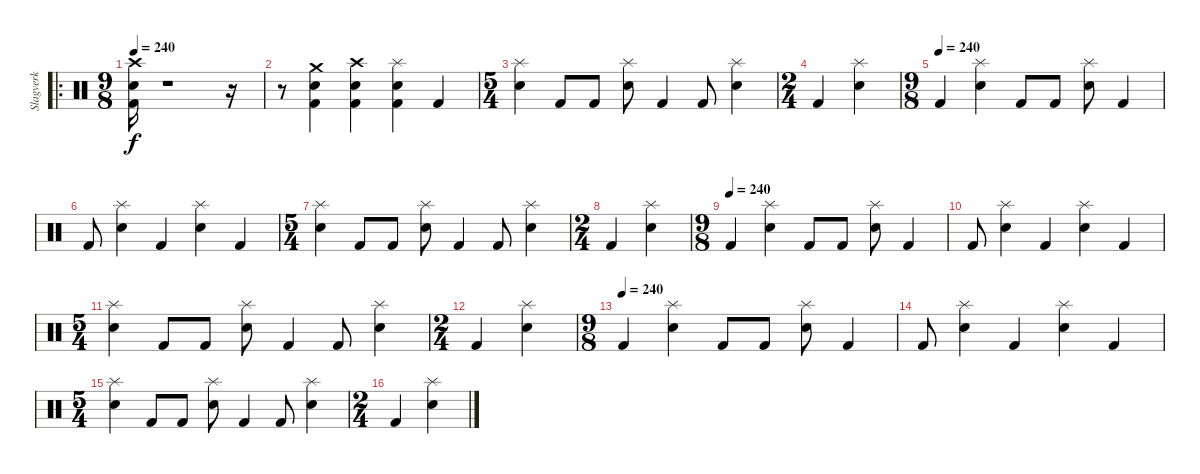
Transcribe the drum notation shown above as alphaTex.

\track ("Slagverk" "Slagverk") {instrument percussion}
\staff {score}
\articulation defaults
\ro
\ts (9 8)
\tempo 240
\clef neutral
\ks c
("Crash high (hit)" "Electric Snare (hit)" "Kick (hit) 2").16{dy f} r.1 r.16 |
r.8 ("Crash medium (hit)" "Electric Snare (hit)" "Kick (hit) 2").4 ("Crash high (hit)" "Electric Snare (hit)" "Kick (hit) 2").4 ("Splash (hit)" "Electric Snare (hit)" "Kick (hit) 2").4 "Kick (hit) 2".4 |
\ts (5 4)
("Splash (hit)" "Electric Snare (hit)").4 "Kick (hit) 2".8 "Kick (hit) 2".8 ("Splash (hit)" "Electric Snare (hit)").8 "Kick (hit) 2".4 "Kick (hit) 2".8 ("Splash (hit)" "Electric Snare (hit)").4 |
\ts (2 4)
"Kick (hit) 2".4 ("Splash (hit)" "Electric Snare (hit)").4 |
\ts (9 8)
\tempo (240)
"Kick (hit) 2".4 ("Splash (hit)" "Electric Snare (hit)").4 "Kick (hit) 2".8 "Kick (hit) 2".8 ("Splash (hit)" "Electric Snare (hit)").8 "Kick (hit) 2".4 |
"Kick (hit) 2".8 ("Splash (hit)" "Electric Snare (hit)").4 "Kick (hit) 2".4 ("Splash (hit)" "Electric Snare (hit)").4 "Kick (hit) 2".4 |
\ts (5 4)
("Splash (hit)" "Electric Snare (hit)").4 "Kick (hit) 2".8 "Kick (hit) 2".8 ("Splash (hit)" "Electric Snare (hit)").8 "Kick (hit) 2".4 "Kick (hit) 2".8 ("Splash (hit)" "Electric Snare (hit)").4 |
\ts (2 4)
"Kick (hit) 2".4 ("Splash (hit)" "Electric Snare (hit)").4 |
\ts (9 8)
\tempo (240)
"Kick (hit) 2".4 ("Splash (hit)" "Electric Snare (hit)").4 "Kick (hit) 2".8 "Kick (hit) 2".8 ("Splash (hit)" "Electric Snare (hit)").8 "Kick (hit) 2".4 |
"Kick (hit) 2".8 ("Splash (hit)" "Electric Snare (hit)").4 "Kick (hit) 2".4 ("Splash (hit)" "Electric Snare (hit)").4 "Kick (hit) 2".4 |
\ts (5 4)
("Splash (hit)" "Electric Snare (hit)").4 "Kick (hit) 2".8 "Kick (hit) 2".8 ("Splash (hit)" "Electric Snare (hit)").8 "Kick (hit) 2".4 "Kick (hit) 2".8 ("Splash (hit)" "Electric Snare (hit)").4 |
\ts (2 4)
"Kick (hit) 2".4 ("Splash (hit)" "Electric Snare (hit)").4 |
\ts (9 8)
\tempo (240)
"Kick (hit) 2".4 ("Splash (hit)" "Electric Snare (hit)").4 "Kick (hit) 2".8 "Kick (hit) 2".8 ("Splash (hit)" "Electric Snare (hit)").8 "Kick (hit) 2".4 |
"Kick (hit) 2".8 ("Splash (hit)" "Electric Snare (hit)").4 "Kick (hit) 2".4 ("Splash (hit)" "Electric Snare (hit)").4 "Kick (hit) 2".4 |
\ts (5 4)
("Splash (hit)" "Electric Snare (hit)").4 "Kick (hit) 2".8 "Kick (hit) 2".8 ("Splash (hit)" "Electric Snare (hit)").8 "Kick (hit) 2".4 "Kick (hit) 2".8 ("Splash (hit)" "Electric Snare (hit)").4 |
\ts (2 4)
"Kick (hit) 2".4 ("Splash (hit)" "Electric Snare (hit)").4
